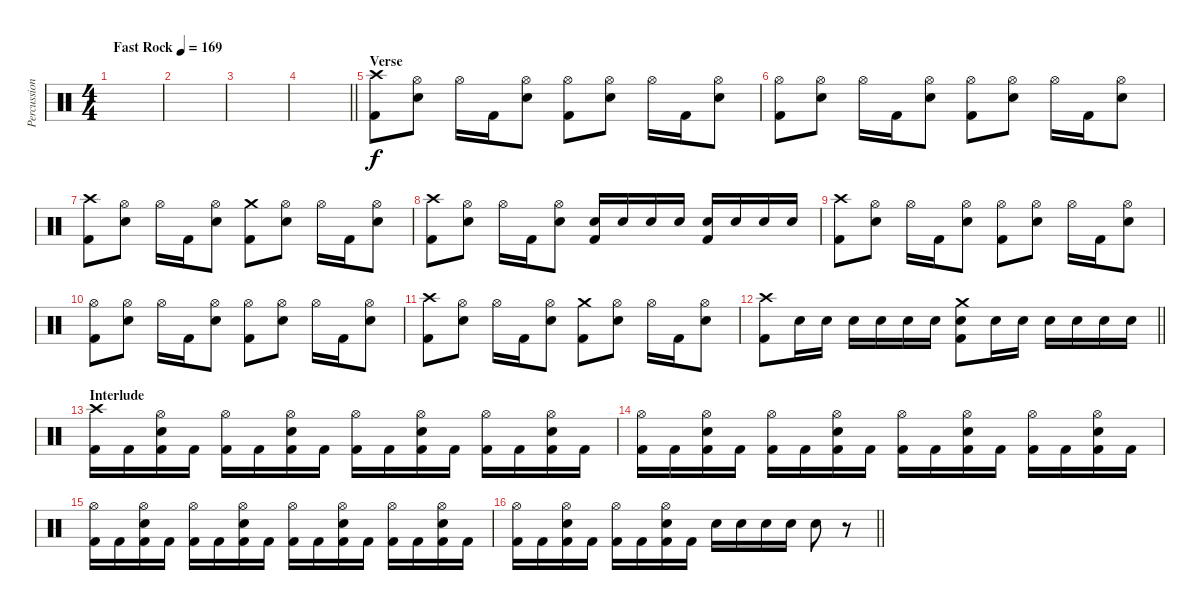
\track ("Percussion" "Percussion") {instrument percussion}
\staff {score}
\articulation defaults
\ts (4 4)
\tempo (169 "Fast Rock")
\clef neutral
\ks c
|
|
|
\barLineRight lightlight
|
\section ("" "Verse")
("Crash high (hit)" "Kick (hit) 2").8 ("Hi-Hat (open)" "Electric Snare (hit)").8 "Hi-Hat (open)".16 "Kick (hit) 2".16 ("Hi-Hat (open)" "Electric Snare (hit)").8 ("Hi-Hat (open)" "Kick (hit) 2").8 ("Hi-Hat (open)" "Electric Snare (hit)").8 "Hi-Hat (open)".16 "Kick (hit) 2".16 ("Hi-Hat (open)" "Electric Snare (hit)").8 |
("Hi-Hat (open)" "Kick (hit) 2").8 ("Hi-Hat (open)" "Electric Snare (hit)").8 "Hi-Hat (open)".16 "Kick (hit) 2".16 ("Hi-Hat (open)" "Electric Snare (hit)").8 ("Hi-Hat (open)" "Kick (hit) 2").8 ("Hi-Hat (open)" "Electric Snare (hit)").8 "Hi-Hat (open)".16 "Kick (hit) 2".16 ("Hi-Hat (open)" "Electric Snare (hit)").8 |
("Crash high (hit)" "Kick (hit) 2").8 ("Hi-Hat (open)" "Electric Snare (hit)").8 "Hi-Hat (open)".16 "Kick (hit) 2".16 ("Hi-Hat (open)" "Electric Snare (hit)").8 ("Crash medium (hit)" "Kick (hit) 2").8 ("Hi-Hat (open)" "Electric Snare (hit)").8 "Hi-Hat (open)".16 "Kick (hit) 2".16 ("Hi-Hat (open)" "Electric Snare (hit)").8 |
("Crash high (hit)" "Kick (hit) 2").8 ("Hi-Hat (open)" "Electric Snare (hit)").8 "Hi-Hat (open)".16 "Kick (hit) 2".16 ("Hi-Hat (open)" "Electric Snare (hit)").8 ("Electric Snare (hit)" "Kick (hit) 2").16 "Electric Snare (hit)".16 "Electric Snare (hit)".16 "Electric Snare (hit)".16 ("Electric Snare (hit)" "Kick (hit) 2").16 "Electric Snare (hit)".16 "Electric Snare (hit)".16 "Electric Snare (hit)".16 |
("Crash high (hit)" "Kick (hit) 2").8 ("Hi-Hat (open)" "Electric Snare (hit)").8 "Hi-Hat (open)".16 "Kick (hit) 2".16 ("Hi-Hat (open)" "Electric Snare (hit)").8 ("Hi-Hat (open)" "Kick (hit) 2").8 ("Hi-Hat (open)" "Electric Snare (hit)").8 "Hi-Hat (open)".16 "Kick (hit) 2".16 ("Hi-Hat (open)" "Electric Snare (hit)").8 |
("Hi-Hat (open)" "Kick (hit) 2").8 ("Hi-Hat (open)" "Electric Snare (hit)").8 "Hi-Hat (open)".16 "Kick (hit) 2".16 ("Hi-Hat (open)" "Electric Snare (hit)").8 ("Hi-Hat (open)" "Kick (hit) 2").8 ("Hi-Hat (open)" "Electric Snare (hit)").8 "Hi-Hat (open)".16 "Kick (hit) 2".16 ("Hi-Hat (open)" "Electric Snare (hit)").8 |
("Crash high (hit)" "Kick (hit) 2").8 ("Hi-Hat (open)" "Electric Snare (hit)").8 "Hi-Hat (open)".16 "Kick (hit) 2".16 ("Hi-Hat (open)" "Electric Snare (hit)").8 ("Crash medium (hit)" "Kick (hit) 2").8 ("Hi-Hat (open)" "Electric Snare (hit)").8 "Hi-Hat (open)".16 "Kick (hit) 2".16 ("Hi-Hat (open)" "Electric Snare (hit)").8 |
\barLineRight lightlight
("Crash high (hit)" "Kick (hit) 2").8 "Electric Snare (hit)".16 "Electric Snare (hit)".16 "Electric Snare (hit)".16 "Electric Snare (hit)".16 "Electric Snare (hit)".16 "Electric Snare (hit)".16 ("Crash medium (hit)" "Electric Snare (hit)" "Kick (hit) 2").8 "Electric Snare (hit)".16 "Electric Snare (hit)".16 "Electric Snare (hit)".16 "Electric Snare (hit)".16 "Electric Snare (hit)".16 "Electric Snare (hit)".16 |
\section ("" "Interlude")
("Crash high (hit)" "Kick (hit) 2").16 "Kick (hit) 2".16 ("Hi-Hat (open)" "Electric Snare (hit)" "Kick (hit) 2").16 "Kick (hit) 2".16 ("Hi-Hat (open)" "Kick (hit) 2").16 "Kick (hit) 2".16 ("Hi-Hat (open)" "Electric Snare (hit)" "Kick (hit) 2").16 "Kick (hit) 2".16 ("Hi-Hat (open)" "Kick (hit) 2").16 "Kick (hit) 2".16 ("Hi-Hat (open)" "Electric Snare (hit)" "Kick (hit) 2").16 "Kick (hit) 2".16 ("Hi-Hat (open)" "Kick (hit) 2").16 "Kick (hit) 2".16 ("Hi-Hat (open)" "Electric Snare (hit)" "Kick (hit) 2").16 "Kick (hit) 2".16 |
("Hi-Hat (open)" "Kick (hit) 2").16 "Kick (hit) 2".16 ("Hi-Hat (open)" "Electric Snare (hit)" "Kick (hit) 2").16 "Kick (hit) 2".16 ("Hi-Hat (open)" "Kick (hit) 2").16 "Kick (hit) 2".16 ("Hi-Hat (open)" "Electric Snare (hit)" "Kick (hit) 2").16 "Kick (hit) 2".16 ("Hi-Hat (open)" "Kick (hit) 2").16 "Kick (hit) 2".16 ("Hi-Hat (open)" "Electric Snare (hit)" "Kick (hit) 2").16 "Kick (hit) 2".16 ("Hi-Hat (open)" "Kick (hit) 2").16 "Kick (hit) 2".16 ("Hi-Hat (open)" "Electric Snare (hit)" "Kick (hit) 2").16 "Kick (hit) 2".16 |
("Hi-Hat (open)" "Kick (hit) 2").16 "Kick (hit) 2".16 ("Hi-Hat (open)" "Electric Snare (hit)" "Kick (hit) 2").16 "Kick (hit) 2".16 ("Hi-Hat (open)" "Kick (hit) 2").16 "Kick (hit) 2".16 ("Hi-Hat (open)" "Electric Snare (hit)" "Kick (hit) 2").16 "Kick (hit) 2".16 ("Hi-Hat (open)" "Kick (hit) 2").16 "Kick (hit) 2".16 ("Hi-Hat (open)" "Electric Snare (hit)" "Kick (hit) 2").16 "Kick (hit) 2".16 ("Hi-Hat (open)" "Kick (hit) 2").16 "Kick (hit) 2".16 ("Hi-Hat (open)" "Electric Snare (hit)" "Kick (hit) 2").16 "Kick (hit) 2".16 |
\barLineRight lightlight
("Hi-Hat (open)" "Kick (hit) 2").16 "Kick (hit) 2".16 ("Hi-Hat (open)" "Electric Snare (hit)" "Kick (hit) 2").16 "Kick (hit) 2".16 ("Hi-Hat (open)" "Kick (hit) 2").16 "Kick (hit) 2".16 ("Hi-Hat (open)" "Electric Snare (hit)" "Kick (hit) 2").16 "Kick (hit) 2".16 "Electric Snare (hit)".16 "Electric Snare (hit)".16 "Electric Snare (hit)".16 "Electric Snare (hit)".16 "Electric Snare (hit)".8 r.8
